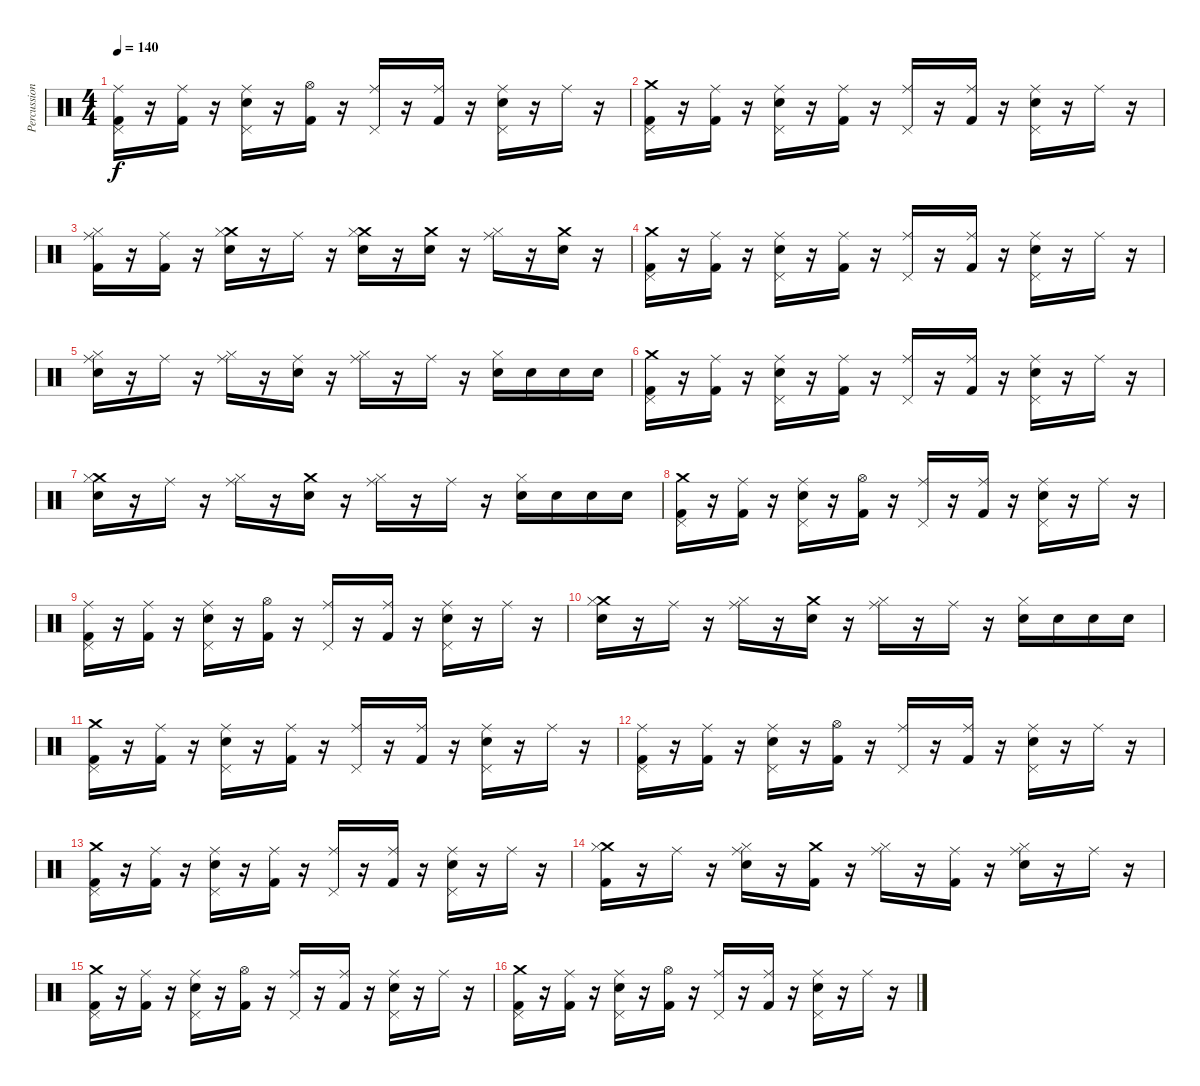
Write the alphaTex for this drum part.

\track ("Percussion" "Percussion") {instrument percussion}
\staff {score}
\articulation defaults
\ts (4 4)
\tempo 140
\clef neutral
\ks c
("Ride (middle)" "Pedal Hi-Hat (hit)" "Kick (hit) 2").16{dy f} r.16 ("Ride (middle)" "Kick (hit) 2").16 r.16 ("Ride (middle)" "Pedal Hi-Hat (hit)" "Snare (hit) 2").16 r.16 ("Hi-Hat (open)" "Kick (hit) 2").16 r.16 ("Ride (middle)" "Pedal Hi-Hat (hit)").16 r.16 ("Ride (middle)" "Kick (hit) 2").16 r.16 ("Ride (middle)" "Pedal Hi-Hat (hit)" "Snare (hit) 2").16 r.16 "Ride (middle)".16 r.16 |
("Crash medium (hit)" "Pedal Hi-Hat (hit)" "Kick (hit) 2").16 r.16 ("Ride (middle)" "Kick (hit) 2").16 r.16 ("Ride (middle)" "Pedal Hi-Hat (hit)" "Snare (hit) 2").16 r.16 ("Ride (middle)" "Kick (hit) 2").16 r.16 ("Ride (middle)" "Pedal Hi-Hat (hit)").16 r.16 ("Ride (middle)" "Kick (hit) 2").16 r.16 ("Ride (middle)" "Pedal Hi-Hat (hit)" "Snare (hit) 2").16 r.16 "Ride (middle)".16 r.16 |
("Ride (middle)" "Hi-Hat (closed)" "Kick (hit) 2").16 r.16 ("Ride (middle)" "Kick (hit) 2").16 r.16 ("Crash medium (hit)" "Hi-Hat (closed)" "Snare (hit) 2").16 r.16 "Ride (middle)".16 r.16 ("Crash medium (hit)" "Hi-Hat (closed)" "Snare (hit) 2").16 r.16 ("Crash medium (hit)" "Snare (hit) 2").16 r.16 ("Ride (middle)" "Hi-Hat (closed)").16 r.16 ("Crash medium (hit)" "Snare (hit) 2").16 r.16 |
("Crash medium (hit)" "Pedal Hi-Hat (hit)" "Kick (hit) 2").16 r.16 ("Ride (middle)" "Kick (hit) 2").16 r.16 ("Ride (middle)" "Pedal Hi-Hat (hit)" "Snare (hit) 2").16 r.16 ("Ride (middle)" "Kick (hit) 2").16 r.16 ("Ride (middle)" "Pedal Hi-Hat (hit)").16 r.16 ("Ride (middle)" "Kick (hit) 2").16 r.16 ("Ride (middle)" "Pedal Hi-Hat (hit)" "Snare (hit) 2").16 r.16 "Ride (middle)".16 r.16 |
("Ride (middle)" "Hi-Hat (closed)" "Snare (hit) 2").16 r.16 "Ride (middle)".16 r.16 ("Ride (middle)" "Hi-Hat (closed)").16 r.16 ("Ride (middle)" "Snare (hit) 2").16 r.16 ("Ride (middle)" "Hi-Hat (closed)").16 r.16 "Ride (middle)".16 r.16 ("Hi-Hat (closed)" "Snare (hit) 2").16 "Snare (hit) 2".16 "Snare (hit) 2".16 "Snare (hit) 2".16 |
("Crash medium (hit)" "Pedal Hi-Hat (hit)" "Kick (hit) 2").16 r.16 ("Ride (middle)" "Kick (hit) 2").16 r.16 ("Ride (middle)" "Pedal Hi-Hat (hit)" "Snare (hit) 2").16 r.16 ("Ride (middle)" "Kick (hit) 2").16 r.16 ("Ride (middle)" "Pedal Hi-Hat (hit)").16 r.16 ("Ride (middle)" "Kick (hit) 2").16 r.16 ("Ride (middle)" "Pedal Hi-Hat (hit)" "Snare (hit) 2").16 r.16 "Ride (middle)".16 r.16 |
("Crash medium (hit)" "Hi-Hat (closed)" "Snare (hit) 2").16 r.16 "Ride (middle)".16 r.16 ("Ride (middle)" "Hi-Hat (closed)").16 r.16 ("Crash medium (hit)" "Snare (hit) 2").16 r.16 ("Ride (middle)" "Hi-Hat (closed)").16 r.16 "Ride (middle)".16 r.16 ("Hi-Hat (closed)" "Snare (hit) 2").16 "Snare (hit) 2".16 "Snare (hit) 2".16 "Snare (hit) 2".16 |
("Crash medium (hit)" "Pedal Hi-Hat (hit)" "Kick (hit) 2").16 r.16 ("Ride (middle)" "Kick (hit) 2").16 r.16 ("Ride (middle)" "Pedal Hi-Hat (hit)" "Snare (hit) 2").16 r.16 ("Hi-Hat (open)" "Kick (hit) 2").16 r.16 ("Ride (middle)" "Pedal Hi-Hat (hit)").16 r.16 ("Ride (middle)" "Kick (hit) 2").16 r.16 ("Ride (middle)" "Pedal Hi-Hat (hit)" "Snare (hit) 2").16 r.16 "Ride (middle)".16 r.16 |
("Ride (middle)" "Pedal Hi-Hat (hit)" "Kick (hit) 2").16 r.16 ("Ride (middle)" "Kick (hit) 2").16 r.16 ("Ride (middle)" "Pedal Hi-Hat (hit)" "Snare (hit) 2").16 r.16 ("Hi-Hat (open)" "Kick (hit) 2").16 r.16 ("Ride (middle)" "Pedal Hi-Hat (hit)").16 r.16 ("Ride (middle)" "Kick (hit) 2").16 r.16 ("Ride (middle)" "Pedal Hi-Hat (hit)" "Snare (hit) 2").16 r.16 "Ride (middle)".16 r.16 |
("Crash medium (hit)" "Hi-Hat (closed)" "Snare (hit) 2").16 r.16 "Ride (middle)".16 r.16 ("Ride (middle)" "Hi-Hat (closed)").16 r.16 ("Crash medium (hit)" "Snare (hit) 2").16 r.16 ("Ride (middle)" "Hi-Hat (closed)").16 r.16 "Ride (middle)".16 r.16 ("Hi-Hat (closed)" "Snare (hit) 2").16 "Snare (hit) 2".16 "Snare (hit) 2".16 "Snare (hit) 2".16 |
("Crash medium (hit)" "Pedal Hi-Hat (hit)" "Kick (hit) 2").16 r.16 ("Ride (middle)" "Kick (hit) 2").16 r.16 ("Ride (middle)" "Pedal Hi-Hat (hit)" "Snare (hit) 2").16 r.16 ("Ride (middle)" "Kick (hit) 2").16 r.16 ("Ride (middle)" "Pedal Hi-Hat (hit)").16 r.16 ("Ride (middle)" "Kick (hit) 2").16 r.16 ("Ride (middle)" "Pedal Hi-Hat (hit)" "Snare (hit) 2").16 r.16 "Ride (middle)".16 r.16 |
("Ride (middle)" "Pedal Hi-Hat (hit)" "Kick (hit) 2").16 r.16 ("Ride (middle)" "Kick (hit) 2").16 r.16 ("Ride (middle)" "Pedal Hi-Hat (hit)" "Snare (hit) 2").16 r.16 ("Hi-Hat (open)" "Kick (hit) 2").16 r.16 ("Ride (middle)" "Pedal Hi-Hat (hit)").16 r.16 ("Ride (middle)" "Kick (hit) 2").16 r.16 ("Ride (middle)" "Pedal Hi-Hat (hit)" "Snare (hit) 2").16 r.16 "Ride (middle)".16 r.16 |
("Crash medium (hit)" "Pedal Hi-Hat (hit)" "Kick (hit) 2").16 r.16 ("Ride (middle)" "Kick (hit) 2").16 r.16 ("Ride (middle)" "Pedal Hi-Hat (hit)" "Snare (hit) 2").16 r.16 ("Ride (middle)" "Kick (hit) 2").16 r.16 ("Ride (middle)" "Pedal Hi-Hat (hit)").16 r.16 ("Ride (middle)" "Kick (hit) 2").16 r.16 ("Ride (middle)" "Pedal Hi-Hat (hit)" "Snare (hit) 2").16 r.16 "Ride (middle)".16 r.16 |
("Crash medium (hit)" "Hi-Hat (closed)" "Kick (hit) 2").16 r.16 "Ride (middle)".16 r.16 ("Ride (middle)" "Hi-Hat (closed)" "Snare (hit) 2").16 r.16 ("Crash medium (hit)" "Kick (hit) 2").16 r.16 ("Ride (middle)" "Hi-Hat (closed)").16 r.16 ("Ride (middle)" "Kick (hit) 2").16 r.16 ("Ride (middle)" "Hi-Hat (closed)" "Snare (hit) 2").16 r.16 "Ride (middle)".16 r.16 |
("Crash medium (hit)" "Pedal Hi-Hat (hit)" "Kick (hit) 2").16 r.16 ("Ride (middle)" "Kick (hit) 2").16 r.16 ("Ride (middle)" "Pedal Hi-Hat (hit)" "Snare (hit) 2").16 r.16 ("Hi-Hat (open)" "Kick (hit) 2").16 r.16 ("Ride (middle)" "Pedal Hi-Hat (hit)").16 r.16 ("Ride (middle)" "Kick (hit) 2").16 r.16 ("Ride (middle)" "Pedal Hi-Hat (hit)" "Snare (hit) 2").16 r.16 "Ride (middle)".16 r.16 |
("Crash medium (hit)" "Pedal Hi-Hat (hit)" "Kick (hit) 2").16 r.16 ("Ride (middle)" "Kick (hit) 2").16 r.16 ("Ride (middle)" "Pedal Hi-Hat (hit)" "Snare (hit) 2").16 r.16 ("Hi-Hat (open)" "Kick (hit) 2").16 r.16 ("Ride (middle)" "Pedal Hi-Hat (hit)").16 r.16 ("Ride (middle)" "Kick (hit) 2").16 r.16 ("Ride (middle)" "Pedal Hi-Hat (hit)" "Snare (hit) 2").16 r.16 "Ride (middle)".16 r.16
